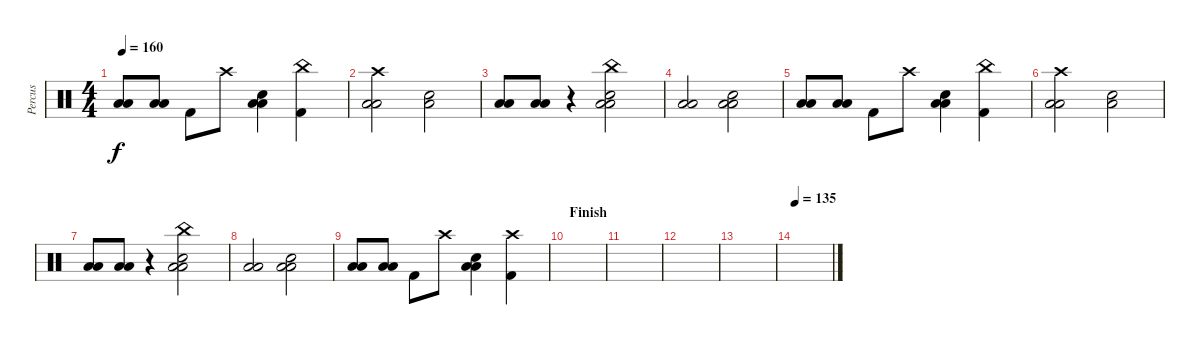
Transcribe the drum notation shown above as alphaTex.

\track ("Percus" "Percus") {instrument percussion}
\staff {score}
\articulation defaults
\ts (4 4)
\tempo 160
\clef neutral
\ks c
("Low Floor Tom (hit)" "Low Tom (hit)").8{dy f} ("Low Floor Tom (hit)" "Low Tom (hit)").8 "Kick (hit) 2".8 "Crash high (hit)".8 ("Snare (hit) 2" "Low Floor Tom (hit)" "Low Tom (hit)").4 ("China (hit)" "Kick (hit) 2").4 |
("Crash high (hit)" "Low Tom (hit)" "Low Floor Tom (hit)").2 ("Snare (hit) 2" "Low Floor Tom (hit)").2 |
("Low Tom (hit)" "Low Floor Tom (hit)").8 ("Low Tom (hit)" "Low Floor Tom (hit)").8 r.4 ("Snare (hit) 2" "Low Floor Tom (hit)" "Low Tom (hit)" "China (hit)").2 |
("Low Floor Tom (hit)" "Low Tom (hit)").2 ("Snare (hit) 2" "Low Floor Tom (hit)" "Low Tom (hit)").2 |
("Low Floor Tom (hit)" "Low Tom (hit)").8 ("Low Floor Tom (hit)" "Low Tom (hit)").8 "Kick (hit) 2".8 "Crash high (hit)".8 ("Snare (hit) 2" "Low Floor Tom (hit)" "Low Tom (hit)").4 ("China (hit)" "Kick (hit) 2").4 |
("Crash high (hit)" "Low Tom (hit)" "Low Floor Tom (hit)").2 ("Snare (hit) 2" "Low Floor Tom (hit)").2 |
("Low Tom (hit)" "Low Floor Tom (hit)").8 ("Low Tom (hit)" "Low Floor Tom (hit)").8 r.4 ("Snare (hit) 2" "Low Floor Tom (hit)" "Low Tom (hit)" "China (hit)").2 |
("Low Floor Tom (hit)" "Low Tom (hit)").2 ("Snare (hit) 2" "Low Floor Tom (hit)" "Low Tom (hit)").2 |
("Low Floor Tom (hit)" "Low Tom (hit)").8 ("Low Floor Tom (hit)" "Low Tom (hit)").8 "Kick (hit) 2".8 "Crash high (hit)".8 ("Snare (hit) 2" "Low Floor Tom (hit)" "Low Tom (hit)").4 ("Kick (hit) 2" "Crash high (hit)").4 |
\section ("" "Finish")
|
|
|
|
\tempo 135
